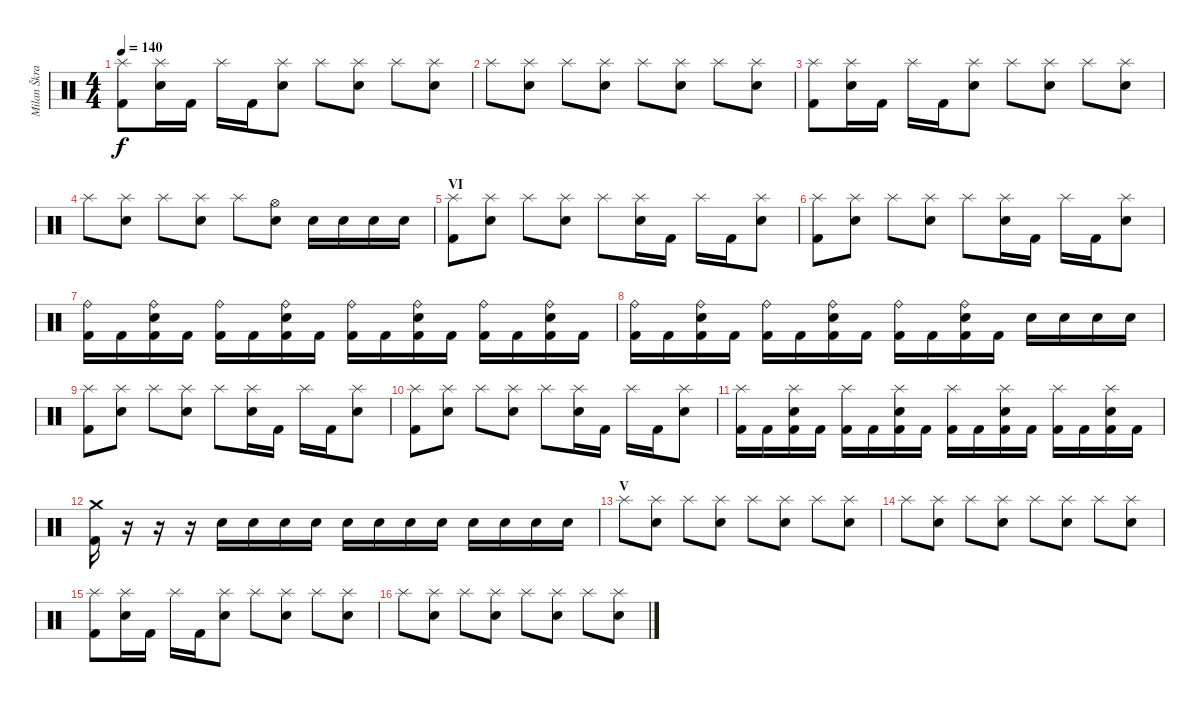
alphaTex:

\track ("Milan Škrabal" "Milan Škra") {instrument percussion}
\staff {score}
\articulation defaults
\ts (4 4)
\tempo 140
\clef neutral
\ks c
("Splash (hit)" "Kick (hit) 2").8{dy f} ("Splash (hit)" "Electric Snare (hit)").16 "Kick (hit) 2".16 "Splash (hit)".16 "Kick (hit) 2".16 ("Splash (hit)" "Electric Snare (hit)").8 "Splash (hit)".8 ("Splash (hit)" "Electric Snare (hit)").8 "Splash (hit)".8 ("Splash (hit)" "Electric Snare (hit)").8 |
"Splash (hit)".8 ("Splash (hit)" "Electric Snare (hit)").8 "Splash (hit)".8 ("Splash (hit)" "Electric Snare (hit)").8 "Splash (hit)".8 ("Splash (hit)" "Electric Snare (hit)").8 "Splash (hit)".8 ("Splash (hit)" "Electric Snare (hit)").8 |
("Splash (hit)" "Kick (hit) 2").8 ("Splash (hit)" "Electric Snare (hit)").16 "Kick (hit) 2".16 "Splash (hit)".16 "Kick (hit) 2".16 ("Splash (hit)" "Electric Snare (hit)").8 "Splash (hit)".8 ("Splash (hit)" "Electric Snare (hit)").8 "Splash (hit)".8 ("Splash (hit)" "Electric Snare (hit)").8 |
"Splash (hit)".8 ("Splash (hit)" "Electric Snare (hit)").8 "Splash (hit)".8 ("Splash (hit)" "Electric Snare (hit)").8 "Splash (hit)".8 ("Hi-Hat (open)" "Electric Snare (hit)").8 "Electric Snare (hit)".16 "Electric Snare (hit)".16 "Electric Snare (hit)".16 "Electric Snare (hit)".16 |
\section ("" "VI")
("Splash (hit)" "Kick (hit) 2").8 ("Splash (hit)" "Electric Snare (hit)").8 "Splash (hit)".8 ("Splash (hit)" "Electric Snare (hit)").8 "Splash (hit)".8 ("Splash (hit)" "Electric Snare (hit)").16 "Kick (hit) 2".16 "Splash (hit)".16 "Kick (hit) 2".16 ("Splash (hit)" "Electric Snare (hit)").8 |
("Splash (hit)" "Kick (hit) 2").8 ("Splash (hit)" "Electric Snare (hit)").8 "Splash (hit)".8 ("Splash (hit)" "Electric Snare (hit)").8 "Splash (hit)".8 ("Splash (hit)" "Electric Snare (hit)").16 "Kick (hit) 2".16 "Splash (hit)".16 "Kick (hit) 2".16 ("Splash (hit)" "Electric Snare (hit)").8 |
("Ride (bell)" "Kick (hit) 2").16 "Kick (hit) 2".16 ("Ride (bell)" "Electric Snare (hit)" "Kick (hit) 2").16 "Kick (hit) 2".16 ("Ride (bell)" "Kick (hit) 2").16 "Kick (hit) 2".16 ("Ride (bell)" "Electric Snare (hit)" "Kick (hit) 2").16 "Kick (hit) 2".16 ("Ride (bell)" "Kick (hit) 2").16 "Kick (hit) 2".16 ("Ride (bell)" "Electric Snare (hit)" "Kick (hit) 2").16 "Kick (hit) 2".16 ("Ride (bell)" "Kick (hit) 2").16 "Kick (hit) 2".16 ("Ride (bell)" "Electric Snare (hit)" "Kick (hit) 2").16 "Kick (hit) 2".16 |
("Ride (bell)" "Kick (hit) 2").16 "Kick (hit) 2".16 ("Ride (bell)" "Electric Snare (hit)" "Kick (hit) 2").16 "Kick (hit) 2".16 ("Ride (bell)" "Kick (hit) 2").16 "Kick (hit) 2".16 ("Ride (bell)" "Electric Snare (hit)" "Kick (hit) 2").16 "Kick (hit) 2".16 ("Ride (bell)" "Kick (hit) 2").16 "Kick (hit) 2".16 ("Ride (bell)" "Electric Snare (hit)" "Kick (hit) 2").16 "Kick (hit) 2".16 "Electric Snare (hit)".16 "Electric Snare (hit)".16 "Electric Snare (hit)".16 "Electric Snare (hit)".16 |
("Splash (hit)" "Kick (hit) 2").8 ("Splash (hit)" "Electric Snare (hit)").8 "Splash (hit)".8 ("Splash (hit)" "Electric Snare (hit)").8 "Splash (hit)".8 ("Splash (hit)" "Electric Snare (hit)").16 "Kick (hit) 2".16 "Splash (hit)".16 "Kick (hit) 2".16 ("Splash (hit)" "Electric Snare (hit)").8 |
("Splash (hit)" "Kick (hit) 2").8 ("Splash (hit)" "Electric Snare (hit)").8 "Splash (hit)".8 ("Splash (hit)" "Electric Snare (hit)").8 "Splash (hit)".8 ("Splash (hit)" "Electric Snare (hit)").16 "Kick (hit) 2".16 "Splash (hit)".16 "Kick (hit) 2".16 ("Splash (hit)" "Electric Snare (hit)").8 |
("Splash (hit)" "Kick (hit) 2").16 "Kick (hit) 2".16 ("Splash (hit)" "Electric Snare (hit)" "Kick (hit) 2").16 "Kick (hit) 2".16 ("Splash (hit)" "Kick (hit) 2").16 "Kick (hit) 2".16 ("Splash (hit)" "Electric Snare (hit)" "Kick (hit) 2").16 "Kick (hit) 2".16 ("Splash (hit)" "Kick (hit) 2").16 "Kick (hit) 2".16 ("Splash (hit)" "Electric Snare (hit)" "Kick (hit) 2").16 "Kick (hit) 2".16 ("Splash (hit)" "Kick (hit) 2").16 "Kick (hit) 2".16 ("Splash (hit)" "Electric Snare (hit)" "Kick (hit) 2").16 "Kick (hit) 2".16 |
("Crash medium (hit)" "Kick (hit) 2").16 r.16 r.16 r.16{volume 7} "Electric Snare (hit)".16{volume 13} "Electric Snare (hit)".16 "Electric Snare (hit)".16 "Electric Snare (hit)".16 "Electric Snare (hit)".16 "Electric Snare (hit)".16 "Electric Snare (hit)".16 "Electric Snare (hit)".16 "Electric Snare (hit)".16 "Electric Snare (hit)".16 "Electric Snare (hit)".16 "Electric Snare (hit)".16 |
\section ("" "V")
"Splash (hit)".8 ("Splash (hit)" "Electric Snare (hit)").8 "Splash (hit)".8 ("Splash (hit)" "Electric Snare (hit)").8 "Splash (hit)".8 ("Splash (hit)" "Electric Snare (hit)").8 "Splash (hit)".8 ("Splash (hit)" "Electric Snare (hit)").8 |
"Splash (hit)".8 ("Splash (hit)" "Electric Snare (hit)").8 "Splash (hit)".8 ("Splash (hit)" "Electric Snare (hit)").8 "Splash (hit)".8 ("Splash (hit)" "Electric Snare (hit)").8 "Splash (hit)".8 ("Splash (hit)" "Electric Snare (hit)").8 |
("Splash (hit)" "Kick (hit) 2").8 ("Splash (hit)" "Electric Snare (hit)").16 "Kick (hit) 2".16 "Splash (hit)".16 "Kick (hit) 2".16 ("Splash (hit)" "Electric Snare (hit)").8 "Splash (hit)".8 ("Splash (hit)" "Electric Snare (hit)").8 "Splash (hit)".8 ("Splash (hit)" "Electric Snare (hit)").8 |
"Splash (hit)".8 ("Splash (hit)" "Electric Snare (hit)").8 "Splash (hit)".8 ("Splash (hit)" "Electric Snare (hit)").8 "Splash (hit)".8 ("Splash (hit)" "Electric Snare (hit)").8 "Splash (hit)".8 ("Splash (hit)" "Electric Snare (hit)").8
